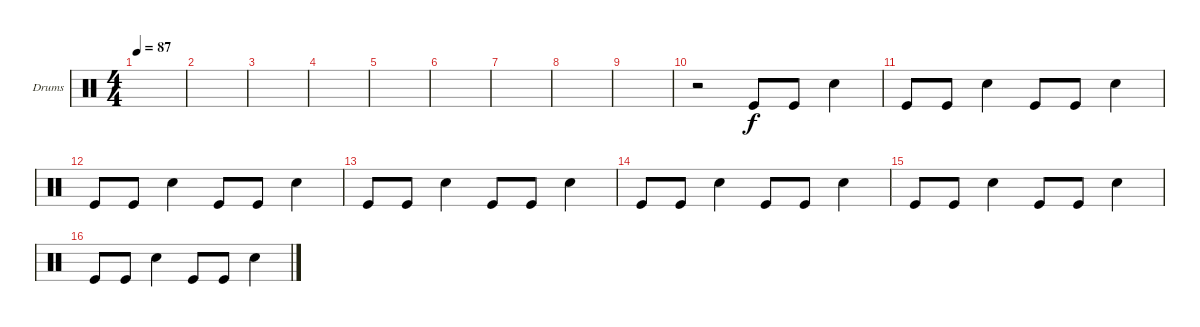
\defaultSystemsLayout 4
\bracketExtendMode groupsimilarinstruments
\firstSystemTrackNameOrientation horizontal
\otherSystemsTrackNameOrientation horizontal
\track ("Body percussion (see notes)" "Drums") {instrument percussion}
\staff {score}
\articulation defaults
\ts (4 4)
\tempo 87
\clef neutral
\ks c
|
|
|
|
|
|
|
|
|
r.2 "Kick (hit)".8 "Kick (hit)".8 "Snare (hit) 2".4 |
"Kick (hit)".8 "Kick (hit)".8 "Snare (hit) 2".4 "Kick (hit)".8 "Kick (hit)".8 "Snare (hit) 2".4 |
"Kick (hit)".8 "Kick (hit)".8 "Snare (hit) 2".4 "Kick (hit)".8 "Kick (hit)".8 "Snare (hit) 2".4 |
"Kick (hit)".8 "Kick (hit)".8 "Snare (hit) 2".4 "Kick (hit)".8 "Kick (hit)".8 "Snare (hit) 2".4 |
"Kick (hit)".8 "Kick (hit)".8 "Snare (hit) 2".4 "Kick (hit)".8 "Kick (hit)".8 "Snare (hit) 2".4 |
"Kick (hit)".8 "Kick (hit)".8 "Snare (hit) 2".4 "Kick (hit)".8 "Kick (hit)".8 "Snare (hit) 2".4 |
"Kick (hit)".8 "Kick (hit)".8 "Snare (hit) 2".4 "Kick (hit)".8 "Kick (hit)".8 "Snare (hit) 2".4
